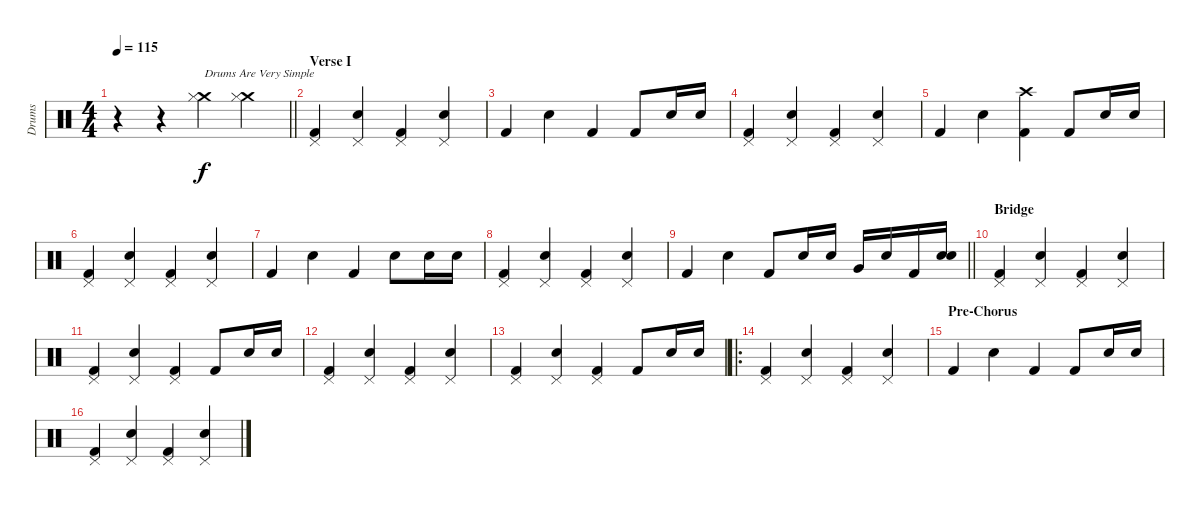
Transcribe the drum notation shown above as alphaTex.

\track ("Drums" "Drums") {instrument percussion}
\staff {score}
\articulation defaults
\ts (4 4)
\tempo 115
\clef neutral
\barLineRight lightlight
\ks c
r.4{dy f} r.4 ("Crash medium (hit)" "Hi-Hat (closed)").4{txt "Drums Are Very Simple"} ("Crash medium (hit)" "Hi-Hat (closed)").4 |
\section ("" "Verse I")
("Pedal Hi-Hat (hit)" "Kick (hit) 2").4 ("Pedal Hi-Hat (hit)" "Electric Snare (hit)").4 ("Pedal Hi-Hat (hit)" "Kick (hit) 2").4 ("Pedal Hi-Hat (hit)" "Electric Snare (hit)").4 |
"Kick (hit) 2".4 "Electric Snare (hit)".4 "Kick (hit) 2".4 "Kick (hit) 2".8 "Snare (hit) 2".16 "Electric Snare (hit)".16 |
("Pedal Hi-Hat (hit)" "Kick (hit) 2").4 ("Pedal Hi-Hat (hit)" "Electric Snare (hit)").4 ("Pedal Hi-Hat (hit)" "Kick (hit) 2").4 ("Pedal Hi-Hat (hit)" "Electric Snare (hit)").4 |
"Kick (hit) 2".4 "Electric Snare (hit)".4 ("Crash high (hit)" "Kick (hit) 2").4 "Kick (hit) 2".8 "Snare (hit) 2".16 "Electric Snare (hit)".16 |
("Pedal Hi-Hat (hit)" "Kick (hit) 2").4 ("Pedal Hi-Hat (hit)" "Electric Snare (hit)").4 ("Pedal Hi-Hat (hit)" "Kick (hit) 2").4 ("Pedal Hi-Hat (hit)" "Electric Snare (hit)").4 |
"Kick (hit) 2".4 "Electric Snare (hit)".4 "Kick (hit) 2".4 "Electric Snare (hit)".8 "Snare (hit) 2".16 "Electric Snare (hit)".16 |
("Pedal Hi-Hat (hit)" "Kick (hit) 2").4 ("Pedal Hi-Hat (hit)" "Electric Snare (hit)").4 ("Pedal Hi-Hat (hit)" "Kick (hit) 2").4 ("Pedal Hi-Hat (hit)" "Electric Snare (hit)").4 |
\barLineRight lightlight "Kick (hit) 2".4 "Electric Snare (hit)".4 "Kick (hit) 2".8 "Snare (hit) 2".16 "Electric Snare (hit)".16 "Very Low Tom (hit)".16 "Electric Snare (hit)".16 "Kick (hit) 2".16
("Snare (hit) 2" "Electric Snare (hit)").16 |
\section ("" "Bridge")
("Pedal Hi-Hat (hit)" "Kick (hit) 2").4 ("Pedal Hi-Hat (hit)" "Electric Snare (hit)").4 ("Pedal Hi-Hat (hit)" "Kick (hit) 2").4 ("Pedal Hi-Hat (hit)" "Electric Snare (hit)").4 |
("Pedal Hi-Hat (hit)" "Kick (hit) 2").4 ("Pedal Hi-Hat (hit)" "Electric Snare (hit)").4 ("Pedal Hi-Hat (hit)" "Kick (hit) 2").4 "Kick (hit) 2".8 "Snare (hit) 2".16 "Electric Snare (hit)".16 |
("Pedal Hi-Hat (hit)" "Kick (hit) 2").4 ("Pedal Hi-Hat (hit)" "Electric Snare (hit)").4 ("Pedal Hi-Hat (hit)" "Kick (hit) 2").4 ("Pedal Hi-Hat (hit)" "Electric Snare (hit)").4 |
("Pedal Hi-Hat (hit)" "Kick (hit) 2").4 ("Pedal Hi-Hat (hit)" "Electric Snare (hit)").4 ("Pedal Hi-Hat (hit)" "Kick (hit) 2").4 "Kick (hit) 2".8 "Snare (hit) 2".16 "Electric Snare (hit)".16 |
\ro
("Pedal Hi-Hat (hit)" "Kick (hit) 2").4 ("Pedal Hi-Hat (hit)" "Electric Snare (hit)").4 ("Pedal Hi-Hat (hit)" "Kick (hit) 2").4 ("Pedal Hi-Hat (hit)" "Electric Snare (hit)").4 |
\section ("" "Pre-Chorus")
"Kick (hit) 2".4 "Electric Snare (hit)".4 "Kick (hit) 2".4 "Kick (hit) 2".8 "Snare (hit) 2".16 "Electric Snare (hit)".16 |
("Pedal Hi-Hat (hit)" "Kick (hit) 2").4 ("Pedal Hi-Hat (hit)" "Electric Snare (hit)").4 ("Pedal Hi-Hat (hit)" "Kick (hit) 2").4 ("Pedal Hi-Hat (hit)" "Electric Snare (hit)").4
